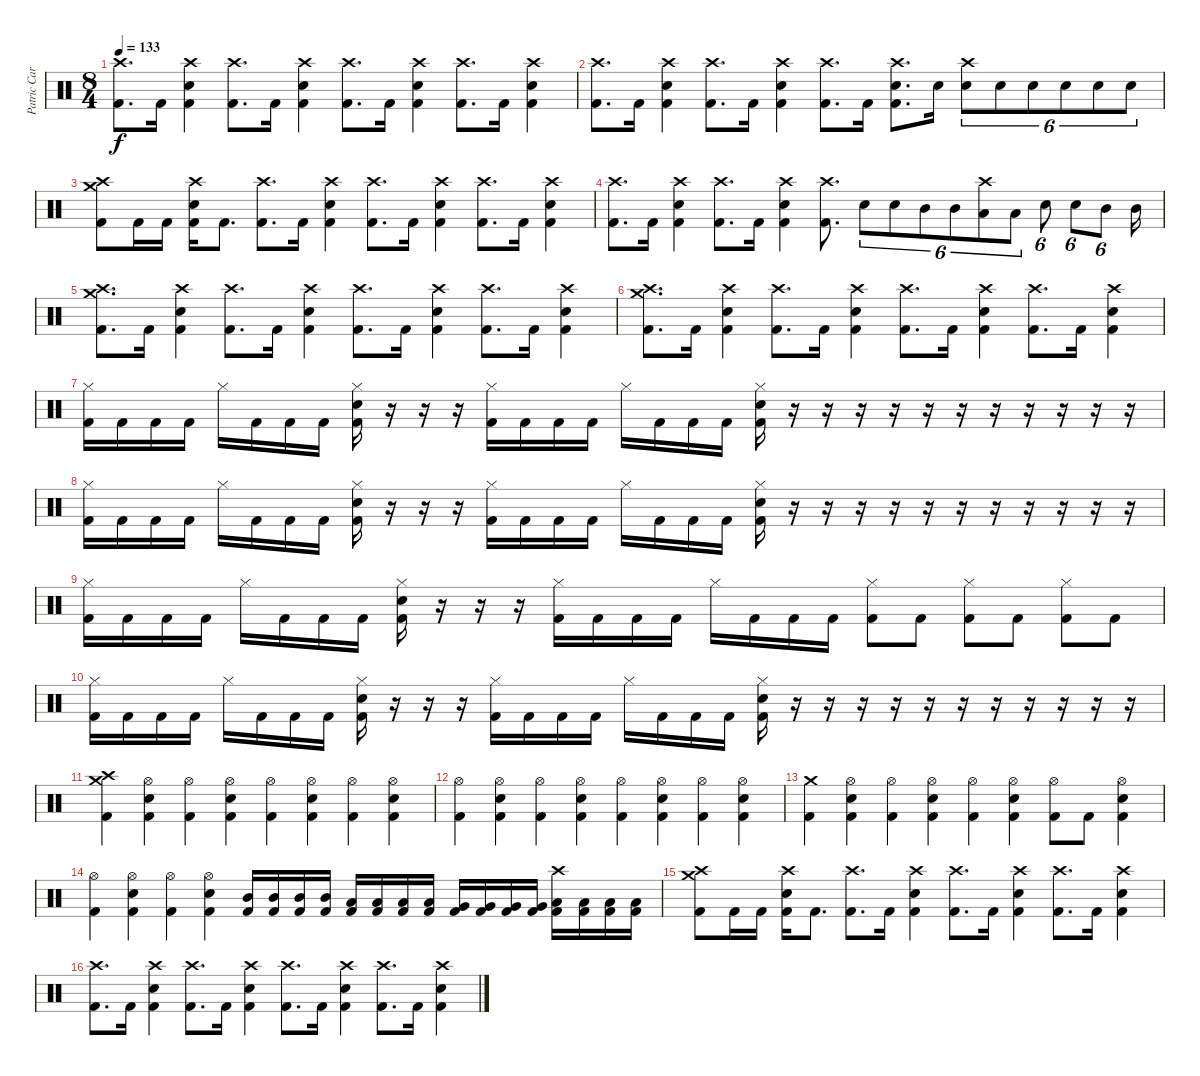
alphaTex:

\track ("Patric Carlsson" "Patric Car") {instrument percussion}
\staff {score}
\articulation defaults
\ts (8 4)
\tempo 133
\clef neutral
\ks c
("Crash high (hit)" "Kick (hit) 2").8{d dy f} "Kick (hit) 2".16 ("Crash high (hit)" "Snare (hit) 2" "Kick (hit) 2").4 ("Crash high (hit)" "Kick (hit) 2").8{d} "Kick (hit) 2".16 ("Crash high (hit)" "Snare (hit) 2" "Kick (hit) 2").4 ("Crash high (hit)" "Kick (hit) 2").8{d} "Kick (hit) 2".16 ("Crash high (hit)" "Snare (hit) 2" "Kick (hit) 2").4 ("Crash high (hit)" "Kick (hit) 2").8{d} "Kick (hit) 2".16 ("Crash high (hit)" "Snare (hit) 2" "Kick (hit) 2").4 |
("Crash high (hit)" "Kick (hit) 2").8{d} "Kick (hit) 2".16 ("Crash high (hit)" "Snare (hit) 2" "Kick (hit) 2").4 ("Crash high (hit)" "Kick (hit) 2").8{d} "Kick (hit) 2".16 ("Crash high (hit)" "Snare (hit) 2" "Kick (hit) 2").4 ("Crash high (hit)" "Kick (hit) 2").8{d} "Kick (hit) 2".16 ("Crash high (hit)" "Snare (hit) 2" "Kick (hit) 2").8{d} "Snare (hit) 2".16 ("Crash high (hit)" "Snare (hit) 2").8{tu (6 4)} "Snare (hit) 2".8{tu (6 4)} "Snare (hit) 2".8{tu (6 4)} "Snare (hit) 2".8{tu (6 4)} "Snare (hit) 2".8{tu (6 4)} "Snare (hit) 2".8{tu (6 4)} |
("Crash medium (hit)" "Crash high (hit)" "Kick (hit) 2").8 "Kick (hit) 2".16 "Kick (hit) 2".16 ("Crash high (hit)" "Snare (hit) 2" "Kick (hit) 2").16 "Kick (hit) 2".8{d} ("Crash high (hit)" "Kick (hit) 2").8{d} "Kick (hit) 2".16 ("Crash high (hit)" "Snare (hit) 2" "Kick (hit) 2").4 ("Crash high (hit)" "Kick (hit) 2").8{d} "Kick (hit) 2".16 ("Crash high (hit)" "Snare (hit) 2" "Kick (hit) 2").4 ("Crash high (hit)" "Kick (hit) 2").8{d} "Kick (hit) 2".16 ("Crash high (hit)" "Snare (hit) 2" "Kick (hit) 2").4 |
("Crash high (hit)" "Kick (hit) 2").8{d} "Kick (hit) 2".16 ("Crash high (hit)" "Snare (hit) 2" "Kick (hit) 2").4 ("Crash high (hit)" "Kick (hit) 2").8{d} "Kick (hit) 2".16 ("Crash high (hit)" "Snare (hit) 2" "Kick (hit) 2").4 ("Crash high (hit)" "Kick (hit) 2").8{d} "Snare (hit) 2".8{tu (6 4)} "Snare (hit) 2".8{tu (6 4)} "Mid Tom (hit)".8{tu (6 4)} "Mid Tom (hit)".8{tu (6 4)} ("Crash high (hit)" "Low Tom (hit)").8{tu (6 4)} "Low Tom (hit)".8{tu (6 4)} "Snare (hit) 2".8{tu (6 4)} "Snare (hit) 2".8{tu (6 4)} "Mid Tom (hit)".8{tu (6 4)} "Mid Tom (hit)".16 |
("Crash high (hit)" "Crash medium (hit)" "Kick (hit) 2").8{d} "Kick (hit) 2".16 ("Crash high (hit)" "Snare (hit) 2" "Kick (hit) 2").4 ("Crash high (hit)" "Kick (hit) 2").8{d} "Kick (hit) 2".16 ("Crash high (hit)" "Snare (hit) 2" "Kick (hit) 2").4 ("Crash high (hit)" "Kick (hit) 2").8{d} "Kick (hit) 2".16 ("Crash high (hit)" "Snare (hit) 2" "Kick (hit) 2").4 ("Crash high (hit)" "Kick (hit) 2").8{d} "Kick (hit) 2".16 ("Crash high (hit)" "Snare (hit) 2" "Kick (hit) 2").4 |
("Crash high (hit)" "Crash medium (hit)" "Kick (hit) 2").8{d} "Kick (hit) 2".16 ("Crash high (hit)" "Snare (hit) 2" "Kick (hit) 2").4 ("Crash high (hit)" "Kick (hit) 2").8{d} "Kick (hit) 2".16 ("Crash high (hit)" "Snare (hit) 2" "Kick (hit) 2").4 ("Crash high (hit)" "Kick (hit) 2").8{d} "Kick (hit) 2".16 ("Crash high (hit)" "Snare (hit) 2" "Kick (hit) 2").4 ("Crash high (hit)" "Kick (hit) 2").8{d} "Kick (hit) 2".16 ("Crash high (hit)" "Snare (hit) 2" "Kick (hit) 2").4 |
("Hi-Hat (closed)" "Kick (hit) 2").16 "Kick (hit) 2".16 "Kick (hit) 2".16 "Kick (hit) 2".16 "Hi-Hat (closed)".16 "Kick (hit) 2".16 "Kick (hit) 2".16 "Kick (hit) 2".16 ("Hi-Hat (closed)" "Snare (hit) 2" "Kick (hit) 2").16 r.16 r.16 r.16 ("Hi-Hat (closed)" "Kick (hit) 2").16 "Kick (hit) 2".16 "Kick (hit) 2".16 "Kick (hit) 2".16 "Hi-Hat (closed)".16 "Kick (hit) 2".16 "Kick (hit) 2".16 "Kick (hit) 2".16 ("Hi-Hat (closed)" "Snare (hit) 2" "Kick (hit) 2").16 r.16 r.16 r.16 r.16 r.16 r.16 r.16 r.16 r.16 r.16 r.16 |
("Hi-Hat (closed)" "Kick (hit) 2").16 "Kick (hit) 2".16 "Kick (hit) 2".16 "Kick (hit) 2".16 "Hi-Hat (closed)".16 "Kick (hit) 2".16 "Kick (hit) 2".16 "Kick (hit) 2".16 ("Hi-Hat (closed)" "Snare (hit) 2" "Kick (hit) 2").16 r.16 r.16 r.16 ("Hi-Hat (closed)" "Kick (hit) 2").16 "Kick (hit) 2".16 "Kick (hit) 2".16 "Kick (hit) 2".16 "Hi-Hat (closed)".16 "Kick (hit) 2".16 "Kick (hit) 2".16 "Kick (hit) 2".16 ("Hi-Hat (closed)" "Snare (hit) 2" "Kick (hit) 2").16 r.16 r.16 r.16 r.16 r.16 r.16 r.16 r.16 r.16 r.16 r.16 |
("Hi-Hat (closed)" "Kick (hit) 2").16 "Kick (hit) 2".16 "Kick (hit) 2".16 "Kick (hit) 2".16 "Hi-Hat (closed)".16 "Kick (hit) 2".16 "Kick (hit) 2".16 "Kick (hit) 2".16 ("Hi-Hat (closed)" "Snare (hit) 2" "Kick (hit) 2").16 r.16 r.16 r.16 ("Hi-Hat (closed)" "Kick (hit) 2").16 "Kick (hit) 2".16 "Kick (hit) 2".16 "Kick (hit) 2".16 "Hi-Hat (closed)".16 "Kick (hit) 2".16 "Kick (hit) 2".16 "Kick (hit) 2".16 ("Hi-Hat (closed)" "Kick (hit) 2").8 "Kick (hit) 2".8 ("Hi-Hat (closed)" "Kick (hit) 2").8 "Kick (hit) 2".8 ("Hi-Hat (closed)" "Kick (hit) 2").8 "Kick (hit) 2".8 |
("Hi-Hat (closed)" "Kick (hit) 2").16 "Kick (hit) 2".16 "Kick (hit) 2".16 "Kick (hit) 2".16 "Hi-Hat (closed)".16 "Kick (hit) 2".16 "Kick (hit) 2".16 "Kick (hit) 2".16 ("Hi-Hat (closed)" "Snare (hit) 2" "Kick (hit) 2").16 r.16 r.16 r.16 ("Hi-Hat (closed)" "Kick (hit) 2").16 "Kick (hit) 2".16 "Kick (hit) 2".16 "Kick (hit) 2".16 "Hi-Hat (closed)".16 "Kick (hit) 2".16 "Kick (hit) 2".16 "Kick (hit) 2".16 ("Hi-Hat (closed)" "Snare (hit) 2" "Kick (hit) 2").16 r.16 r.16 r.16 r.16 r.16 r.16 r.16 r.16 r.16 r.16 r.16 |
("Crash medium (hit)" "Crash high (hit)" "Kick (hit) 2").4 ("Hi-Hat (open)" "Snare (hit) 2" "Kick (hit) 2").4 ("Hi-Hat (open)" "Kick (hit) 2").4 ("Hi-Hat (open)" "Snare (hit) 2" "Kick (hit) 2").4 ("Hi-Hat (open)" "Kick (hit) 2").4 ("Hi-Hat (open)" "Snare (hit) 2" "Kick (hit) 2").4 ("Hi-Hat (open)" "Kick (hit) 2").4 ("Hi-Hat (open)" "Snare (hit) 2" "Kick (hit) 2").4 |
("Hi-Hat (open)" "Kick (hit) 2").4 ("Hi-Hat (open)" "Snare (hit) 2" "Kick (hit) 2").4 ("Hi-Hat (open)" "Kick (hit) 2").4 ("Hi-Hat (open)" "Snare (hit) 2" "Kick (hit) 2").4 ("Hi-Hat (open)" "Kick (hit) 2").4 ("Hi-Hat (open)" "Snare (hit) 2" "Kick (hit) 2").4 ("Hi-Hat (open)" "Kick (hit) 2").4 ("Hi-Hat (open)" "Snare (hit) 2" "Kick (hit) 2").4 |
("Crash medium (hit)" "Kick (hit) 2").4 ("Hi-Hat (open)" "Snare (hit) 2" "Kick (hit) 2").4 ("Hi-Hat (open)" "Kick (hit) 2").4 ("Hi-Hat (open)" "Snare (hit) 2" "Kick (hit) 2").4 ("Hi-Hat (open)" "Kick (hit) 2").4 ("Hi-Hat (open)" "Snare (hit) 2" "Kick (hit) 2").4 ("Hi-Hat (open)" "Kick (hit) 2").8 "Kick (hit) 2".8 ("Hi-Hat (open)" "Snare (hit) 2" "Kick (hit) 2").4 |
("Hi-Hat (open)" "Kick (hit) 2").4 ("Hi-Hat (open)" "Snare (hit) 2" "Kick (hit) 2").4 ("Hi-Hat (open)" "Kick (hit) 2").4 ("Hi-Hat (open)" "Snare (hit) 2" "Kick (hit) 2").4 ("Mid Tom (hit)" "Kick (hit) 2").16 ("Mid Tom (hit)" "Kick (hit) 2").16 ("Mid Tom (hit)" "Kick (hit) 2").16 ("Mid Tom (hit)" "Kick (hit) 2").16 ("Low Tom (hit)" "Kick (hit) 2").16 ("Low Tom (hit)" "Kick (hit) 2").16 ("Low Tom (hit)" "Kick (hit) 2").16 ("Low Tom (hit)" "Kick (hit) 2").16 ("Very Low Tom (hit)" "Kick (hit) 2").16 ("Very Low Tom (hit)" "Kick (hit) 2").16 ("Very Low Tom (hit)" "Kick (hit) 2").16 ("Very Low Tom (hit)" "Kick (hit) 2").16 ("Crash high (hit)" "Low Floor Tom (hit)" "Kick (hit) 2").16 ("Low Floor Tom (hit)" "Kick (hit) 2").16 ("Low Floor Tom (hit)" "Kick (hit) 2").16 ("Low Floor Tom (hit)" "Kick (hit) 2").16 |
("Crash medium (hit)" "Crash high (hit)" "Kick (hit) 2").8 "Kick (hit) 2".16 "Kick (hit) 2".16 ("Crash high (hit)" "Snare (hit) 2" "Kick (hit) 2").16 "Kick (hit) 2".8{d} ("Crash high (hit)" "Kick (hit) 2").8{d} "Kick (hit) 2".16 ("Crash high (hit)" "Snare (hit) 2" "Kick (hit) 2").4 ("Crash high (hit)" "Kick (hit) 2").8{d} "Kick (hit) 2".16 ("Crash high (hit)" "Snare (hit) 2" "Kick (hit) 2").4 ("Crash high (hit)" "Kick (hit) 2").8{d} "Kick (hit) 2".16 ("Crash high (hit)" "Snare (hit) 2" "Kick (hit) 2").4 |
("Crash high (hit)" "Kick (hit) 2").8{d} "Kick (hit) 2".16 ("Crash high (hit)" "Snare (hit) 2" "Kick (hit) 2").4 ("Crash high (hit)" "Kick (hit) 2").8{d} "Kick (hit) 2".16 ("Crash high (hit)" "Snare (hit) 2" "Kick (hit) 2").4 ("Crash high (hit)" "Kick (hit) 2").8{d} "Kick (hit) 2".16 ("Crash high (hit)" "Snare (hit) 2" "Kick (hit) 2").4 ("Crash high (hit)" "Kick (hit) 2").8{d} "Kick (hit) 2".16 ("Crash high (hit)" "Snare (hit) 2" "Kick (hit) 2").4
